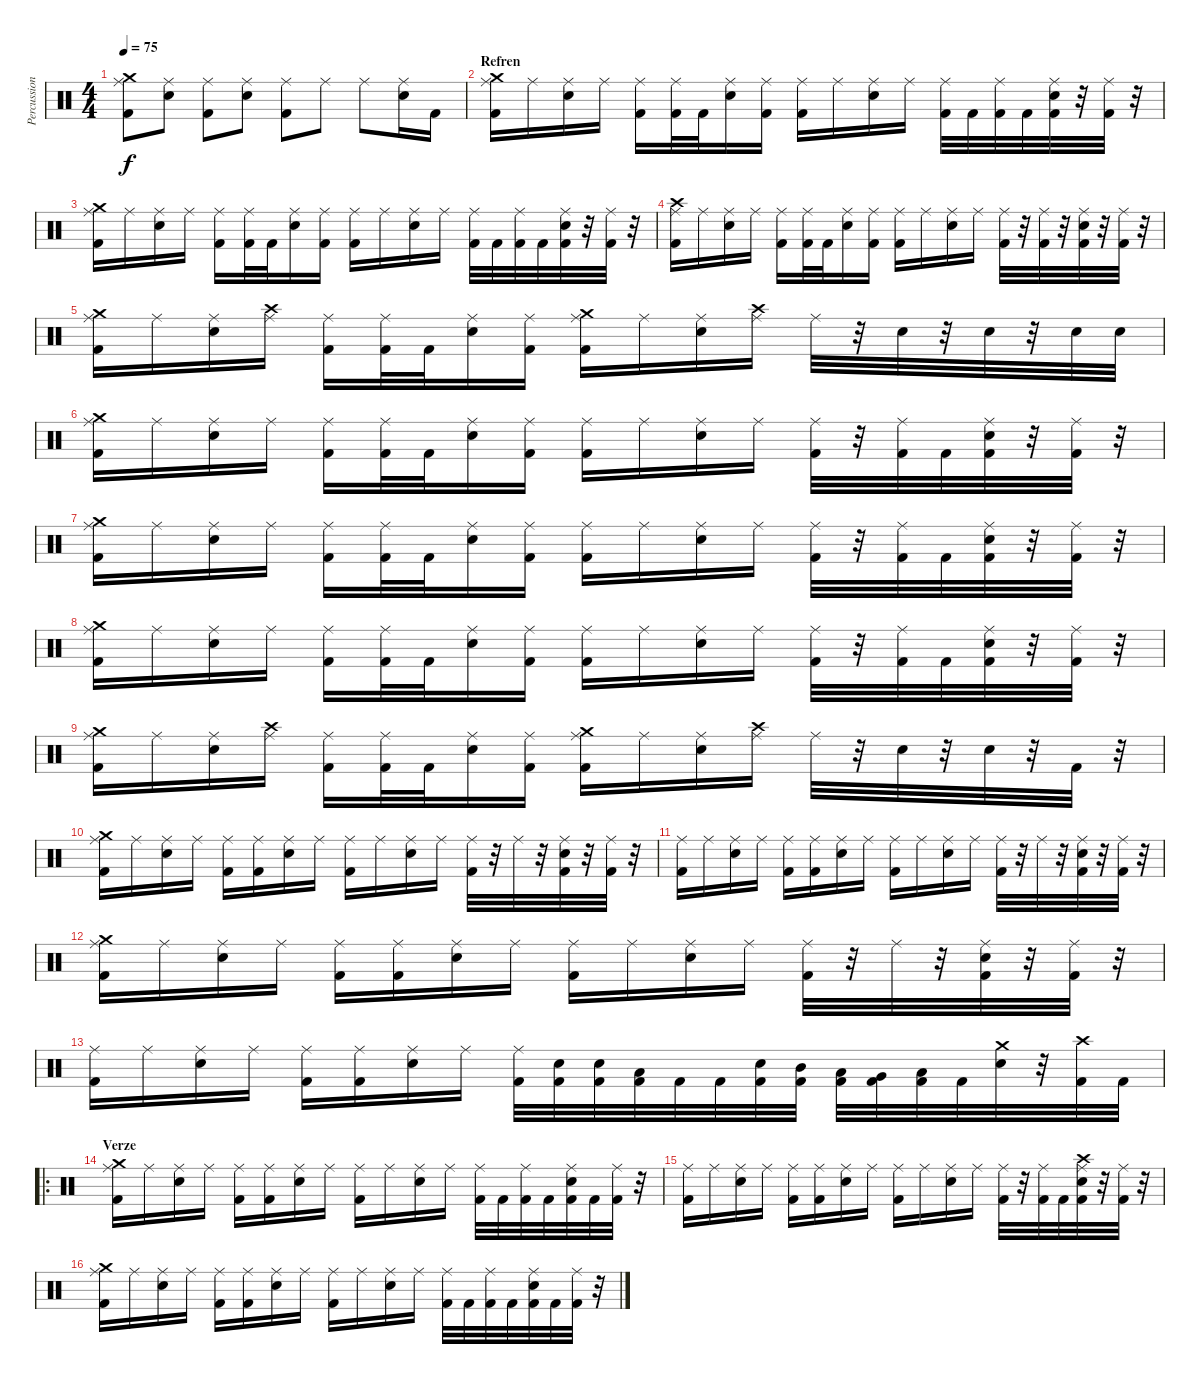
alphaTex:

\track ("Percussion" "Percussion") {instrument percussion}
\staff {score}
\articulation defaults
\ts (4 4)
\tempo 75
\clef neutral
\ks c
("Ride (middle)" "Crash medium (hit)" "Kick (hit) 2").8{dy f} ("Ride (middle)" "Electric Snare (hit)").8 ("Ride (middle)" "Kick (hit) 2").8 ("Ride (middle)" "Electric Snare (hit)").8 ("Ride (middle)" "Kick (hit) 2").8 "Ride (middle)".8 "Ride (middle)".8 ("Ride (middle)" "Electric Snare (hit)").16 "Kick (hit) 2".16 |
\section ("" "Refren")
("Ride (middle)" "Crash medium (hit)" "Kick (hit) 2").16 "Ride (middle)".16 ("Ride (middle)" "Electric Snare (hit)").16 "Ride (middle)".16 ("Ride (middle)" "Kick (hit) 2").16 ("Ride (middle)" "Kick (hit) 2").32 "Kick (hit) 2".32 ("Ride (middle)" "Electric Snare (hit)").16 ("Ride (middle)" "Kick (hit) 2").16 ("Ride (middle)" "Kick (hit) 2").16 "Ride (middle)".16 ("Ride (middle)" "Electric Snare (hit)").16 "Ride (middle)".16 ("Ride (middle)" "Kick (hit) 2").32 "Kick (hit) 2".32 ("Ride (middle)" "Kick (hit) 2").32 "Kick (hit) 2".32 ("Ride (middle)" "Kick (hit) 2" "Electric Snare (hit)").32 r.32 ("Ride (middle)" "Kick (hit) 2").32 r.32 |
("Ride (middle)" "Crash medium (hit)" "Kick (hit) 2").16 "Ride (middle)".16 ("Ride (middle)" "Electric Snare (hit)").16 "Ride (middle)".16 ("Ride (middle)" "Kick (hit) 2").16 ("Ride (middle)" "Kick (hit) 2").32 "Kick (hit) 2".32 ("Ride (middle)" "Electric Snare (hit)").16 ("Ride (middle)" "Kick (hit) 2").16 ("Ride (middle)" "Kick (hit) 2").16 "Ride (middle)".16 ("Ride (middle)" "Electric Snare (hit)").16 "Ride (middle)".16 ("Ride (middle)" "Kick (hit) 2").32 "Kick (hit) 2".32 ("Ride (middle)" "Kick (hit) 2").32 "Kick (hit) 2".32 ("Ride (middle)" "Kick (hit) 2" "Electric Snare (hit)").32 r.32 ("Ride (middle)" "Kick (hit) 2").32 r.32 |
("Ride (middle)" "Crash high (hit)" "Kick (hit) 2").16 "Ride (middle)".16 ("Ride (middle)" "Electric Snare (hit)").16 "Ride (middle)".16 ("Ride (middle)" "Kick (hit) 2").16 ("Ride (middle)" "Kick (hit) 2").32 "Kick (hit) 2".32 ("Ride (middle)" "Electric Snare (hit)").16 ("Ride (middle)" "Kick (hit) 2").16 ("Ride (middle)" "Kick (hit) 2").16 "Ride (middle)".16 ("Ride (middle)" "Electric Snare (hit)").16 "Ride (middle)".16 ("Ride (middle)" "Kick (hit) 2").32 r.32 ("Ride (middle)" "Kick (hit) 2").32 r.32 ("Ride (middle)" "Kick (hit) 2" "Electric Snare (hit)").32 r.32 ("Ride (middle)" "Kick (hit) 2").32 r.32 |
("Ride (middle)" "Crash medium (hit)" "Kick (hit) 2").16 "Ride (middle)".16 ("Ride (middle)" "Electric Snare (hit)").16 ("Ride (middle)" "Crash high (hit)").16 ("Ride (middle)" "Kick (hit) 2").16 ("Ride (middle)" "Kick (hit) 2").32 "Kick (hit) 2".32 ("Ride (middle)" "Electric Snare (hit)").16 ("Ride (middle)" "Kick (hit) 2").16 ("Ride (middle)" "Crash medium (hit)" "Kick (hit) 2").16 "Ride (middle)".16 ("Ride (middle)" "Electric Snare (hit)").16 ("Ride (middle)" "Crash high (hit)").16 "Ride (middle)".32 r.32 "Electric Snare (hit)".32 r.32 "Electric Snare (hit)".32 r.32 "Electric Snare (hit)".32 "Electric Snare (hit)".32 |
("Ride (middle)" "Crash medium (hit)" "Kick (hit) 2").16 "Ride (middle)".16 ("Ride (middle)" "Electric Snare (hit)").16 "Ride (middle)".16 ("Ride (middle)" "Kick (hit) 2").16 ("Ride (middle)" "Kick (hit) 2").32 "Kick (hit) 2".32 ("Ride (middle)" "Electric Snare (hit)").16 ("Ride (middle)" "Kick (hit) 2").16 ("Ride (middle)" "Kick (hit) 2").16 "Ride (middle)".16 ("Ride (middle)" "Electric Snare (hit)").16 "Ride (middle)".16 ("Ride (middle)" "Kick (hit) 2").32 r.32 ("Ride (middle)" "Kick (hit) 2").32 "Kick (hit) 2".32 ("Ride (middle)" "Kick (hit) 2" "Electric Snare (hit)").32 r.32 ("Ride (middle)" "Kick (hit) 2").32 r.32 |
("Ride (middle)" "Crash medium (hit)" "Kick (hit) 2").16 "Ride (middle)".16 ("Ride (middle)" "Electric Snare (hit)").16 "Ride (middle)".16 ("Ride (middle)" "Kick (hit) 2").16 ("Ride (middle)" "Kick (hit) 2").32 "Kick (hit) 2".32 ("Ride (middle)" "Electric Snare (hit)").16 ("Ride (middle)" "Kick (hit) 2").16 ("Ride (middle)" "Kick (hit) 2").16 "Ride (middle)".16 ("Ride (middle)" "Electric Snare (hit)").16 "Ride (middle)".16 ("Ride (middle)" "Kick (hit) 2").32 r.32 ("Ride (middle)" "Kick (hit) 2").32 "Kick (hit) 2".32 ("Ride (middle)" "Kick (hit) 2" "Electric Snare (hit)").32 r.32 ("Ride (middle)" "Kick (hit) 2").32 r.32 |
("Ride (middle)" "Crash medium (hit)" "Kick (hit) 2").16 "Ride (middle)".16 ("Ride (middle)" "Electric Snare (hit)").16 "Ride (middle)".16 ("Ride (middle)" "Kick (hit) 2").16 ("Ride (middle)" "Kick (hit) 2").32 "Kick (hit) 2".32 ("Ride (middle)" "Electric Snare (hit)").16 ("Ride (middle)" "Kick (hit) 2").16 ("Ride (middle)" "Kick (hit) 2").16 "Ride (middle)".16 ("Ride (middle)" "Electric Snare (hit)").16 "Ride (middle)".16 ("Ride (middle)" "Kick (hit) 2").32 r.32 ("Ride (middle)" "Kick (hit) 2").32 "Kick (hit) 2".32 ("Ride (middle)" "Kick (hit) 2" "Electric Snare (hit)").32 r.32 ("Ride (middle)" "Kick (hit) 2").32 r.32 |
("Ride (middle)" "Crash medium (hit)" "Kick (hit) 2").16 "Ride (middle)".16 ("Ride (middle)" "Electric Snare (hit)").16 ("Ride (middle)" "Crash high (hit)").16 ("Ride (middle)" "Kick (hit) 2").16 ("Ride (middle)" "Kick (hit) 2").32 "Kick (hit) 2".32 ("Ride (middle)" "Electric Snare (hit)").16 ("Ride (middle)" "Kick (hit) 2").16 ("Ride (middle)" "Crash medium (hit)" "Kick (hit) 2").16 "Ride (middle)".16 ("Ride (middle)" "Electric Snare (hit)").16 ("Ride (middle)" "Crash high (hit)").16 "Ride (middle)".32 r.32 "Electric Snare (hit)".32 r.32 "Electric Snare (hit)".32 r.32 "Kick (hit) 2".32 r.32 |
("Ride (middle)" "Crash medium (hit)" "Kick (hit) 2").16 "Ride (middle)".16 ("Ride (middle)" "Electric Snare (hit)").16 "Ride (middle)".16 ("Ride (middle)" "Kick (hit) 2").16 ("Ride (middle)" "Kick (hit) 2").16 ("Ride (middle)" "Electric Snare (hit)").16 "Ride (middle)".16 ("Ride (middle)" "Kick (hit) 2").16 "Ride (middle)".16 ("Ride (middle)" "Electric Snare (hit)").16 "Ride (middle)".16 ("Ride (middle)" "Kick (hit) 2").32 r.32 "Ride (middle)".32 r.32 ("Ride (middle)" "Kick (hit) 2" "Electric Snare (hit)").32 r.32 ("Ride (middle)" "Kick (hit) 2").32 r.32 |
("Ride (middle)" "Kick (hit) 2").16 "Ride (middle)".16 ("Ride (middle)" "Electric Snare (hit)").16 "Ride (middle)".16 ("Ride (middle)" "Kick (hit) 2").16 ("Ride (middle)" "Kick (hit) 2").16 ("Ride (middle)" "Electric Snare (hit)").16 "Ride (middle)".16 ("Ride (middle)" "Kick (hit) 2").16 "Ride (middle)".16 ("Ride (middle)" "Electric Snare (hit)").16 "Ride (middle)".16 ("Ride (middle)" "Kick (hit) 2").32 r.32 "Ride (middle)".32 r.32 ("Ride (middle)" "Kick (hit) 2" "Electric Snare (hit)").32 r.32 ("Ride (middle)" "Kick (hit) 2").32 r.32 |
("Ride (middle)" "Crash medium (hit)" "Kick (hit) 2").16 "Ride (middle)".16 ("Ride (middle)" "Electric Snare (hit)").16 "Ride (middle)".16 ("Ride (middle)" "Kick (hit) 2").16 ("Ride (middle)" "Kick (hit) 2").16 ("Ride (middle)" "Electric Snare (hit)").16 "Ride (middle)".16 ("Ride (middle)" "Kick (hit) 2").16 "Ride (middle)".16 ("Ride (middle)" "Electric Snare (hit)").16 "Ride (middle)".16 ("Ride (middle)" "Kick (hit) 2").32 r.32 "Ride (middle)".32 r.32 ("Ride (middle)" "Kick (hit) 2" "Electric Snare (hit)").32 r.32 ("Ride (middle)" "Kick (hit) 2").32 r.32 |
("Ride (middle)" "Kick (hit) 2").16 "Ride (middle)".16 ("Ride (middle)" "Electric Snare (hit)").16 "Ride (middle)".16 ("Ride (middle)" "Kick (hit) 2").16 ("Ride (middle)" "Kick (hit) 2").16 ("Ride (middle)" "Electric Snare (hit)").16 "Ride (middle)".16 ("Ride (middle)" "Kick (hit) 2").32 ("Kick (hit) 2" "Electric Snare (hit)").32 ("Kick (hit) 2" "Electric Snare (hit)").32 ("Kick (hit) 2" "Low Tom (hit)").32 "Kick (hit) 2".32 "Kick (hit) 2".32 ("Kick (hit) 2" "Electric Snare (hit)").32 ("Kick (hit) 2" "Mid Tom (hit)").32 ("Kick (hit) 2" "Low Tom (hit)").32 ("Kick (hit) 2" "Very Low Tom (hit)").32 ("Kick (hit) 2" "Low Floor Tom (hit)").32 "Kick (hit) 2".32 ("Crash medium (hit)" "Electric Snare (hit)").32 r.32 ("Crash high (hit)" "Kick (hit) 2").32 "Kick (hit) 2".32 |
\ro
\section ("" "Verze")
("Ride (middle)" "Crash medium (hit)" "Kick (hit) 2").16 "Ride (middle)".16 ("Ride (middle)" "Electric Snare (hit)").16 "Ride (middle)".16 ("Ride (middle)" "Kick (hit) 2").16 ("Ride (middle)" "Kick (hit) 2").16 ("Ride (middle)" "Electric Snare (hit)").16 "Ride (middle)".16 ("Ride (middle)" "Kick (hit) 2").16 "Ride (middle)".16 ("Ride (middle)" "Electric Snare (hit)").16 "Ride (middle)".16 ("Ride (middle)" "Kick (hit) 2").32 "Kick (hit) 2".32 ("Ride (middle)" "Kick (hit) 2").32 "Kick (hit) 2".32 ("Ride (middle)" "Kick (hit) 2" "Electric Snare (hit)").32 "Kick (hit) 2".32 ("Ride (middle)" "Kick (hit) 2").32 r.32 |
("Ride (middle)" "Kick (hit) 2").16 "Ride (middle)".16 ("Ride (middle)" "Electric Snare (hit)").16 "Ride (middle)".16 ("Ride (middle)" "Kick (hit) 2").16 ("Ride (middle)" "Kick (hit) 2").16 ("Ride (middle)" "Electric Snare (hit)").16 "Ride (middle)".16 ("Ride (middle)" "Kick (hit) 2").16 "Ride (middle)".16 ("Ride (middle)" "Electric Snare (hit)").16 "Ride (middle)".16 ("Ride (middle)" "Kick (hit) 2").32 r.32 ("Ride (middle)" "Kick (hit) 2").32 "Kick (hit) 2".32 ("Ride (middle)" "Crash high (hit)" "Kick (hit) 2" "Electric Snare (hit)").32 r.32 ("Ride (middle)" "Kick (hit) 2").32 r.32 |
("Ride (middle)" "Crash medium (hit)" "Kick (hit) 2").16 "Ride (middle)".16 ("Ride (middle)" "Electric Snare (hit)").16 "Ride (middle)".16 ("Ride (middle)" "Kick (hit) 2").16 ("Ride (middle)" "Kick (hit) 2").16 ("Ride (middle)" "Electric Snare (hit)").16 "Ride (middle)".16 ("Ride (middle)" "Kick (hit) 2").16 "Ride (middle)".16 ("Ride (middle)" "Electric Snare (hit)").16 "Ride (middle)".16 ("Ride (middle)" "Kick (hit) 2").32 "Kick (hit) 2".32 ("Ride (middle)" "Kick (hit) 2").32 "Kick (hit) 2".32 ("Ride (middle)" "Kick (hit) 2" "Electric Snare (hit)").32 "Kick (hit) 2".32 ("Ride (middle)" "Kick (hit) 2").32 r.32
